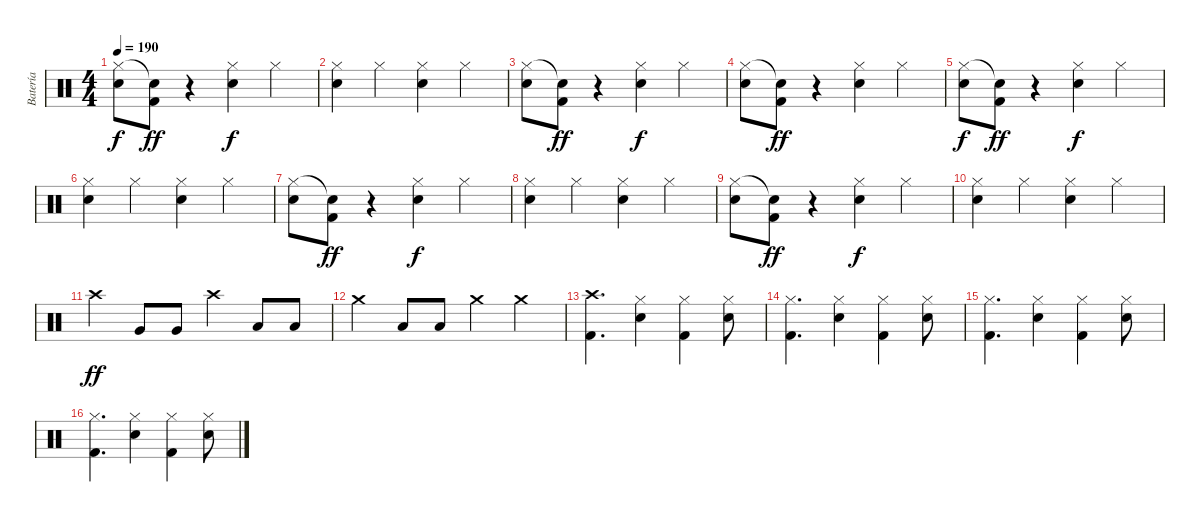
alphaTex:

\track ("Batería" "Batería") {instrument percussion}
\staff {score}
\articulation defaults
\ts (4 4)
\tempo 190
\clef neutral
\ks c
("Electric Snare (hit)" "Hi-Hat (closed)").8{dy f} ("Kick (hit) 2" "Snare (hit)"{t}).8{dy ff} r.4 ("Electric Snare (hit)" "Hi-Hat (closed)").4{dy f} "Hi-Hat (closed)".4 |
("Electric Snare (hit)" "Hi-Hat (closed)").4 "Hi-Hat (closed)".4 ("Electric Snare (hit)" "Hi-Hat (closed)").4 "Hi-Hat (closed)".4 |
("Electric Snare (hit)" "Hi-Hat (closed)").8 ("Kick (hit) 2" "Snare (hit)"{t}).8{dy ff} r.4 ("Electric Snare (hit)" "Hi-Hat (closed)").4{dy f} "Hi-Hat (closed)".4 |
("Electric Snare (hit)" "Hi-Hat (closed)").8 ("Kick (hit) 2" "Snare (hit)"{t}).8{dy ff} r.4 ("Electric Snare (hit)" "Hi-Hat (closed)").4 "Hi-Hat (closed)".4 |
("Electric Snare (hit)" "Hi-Hat (closed)").8{dy f} ("Kick (hit) 2" "Snare (hit)"{t}).8{dy ff} r.4 ("Electric Snare (hit)" "Hi-Hat (closed)").4{dy f} "Hi-Hat (closed)".4 |
("Electric Snare (hit)" "Hi-Hat (closed)").4 "Hi-Hat (closed)".4 ("Electric Snare (hit)" "Hi-Hat (closed)").4 "Hi-Hat (closed)".4 |
("Electric Snare (hit)" "Hi-Hat (closed)").8 ("Kick (hit) 2" "Snare (hit)"{t}).8{dy ff} r.4 ("Electric Snare (hit)" "Hi-Hat (closed)").4{dy f} "Hi-Hat (closed)".4 |
("Electric Snare (hit)" "Hi-Hat (closed)").4 "Hi-Hat (closed)".4 ("Electric Snare (hit)" "Hi-Hat (closed)").4 "Hi-Hat (closed)".4 |
("Electric Snare (hit)" "Hi-Hat (closed)").8 ("Kick (hit) 2" "Snare (hit)"{t}).8{dy ff} r.4 ("Electric Snare (hit)" "Hi-Hat (closed)").4{dy f} "Hi-Hat (closed)".4 |
("Electric Snare (hit)" "Hi-Hat (closed)").4 "Hi-Hat (closed)".4 ("Electric Snare (hit)" "Hi-Hat (closed)").4 "Hi-Hat (closed)".4 |
"Crash high (hit)".4{dy ff} "Very Low Tom (hit)".8 "Very Low Tom (hit)".8 "Crash high (hit)".4 "Low Floor Tom (hit)".8 "Low Floor Tom (hit)".8 |
"Crash medium (hit)".4 "Low Floor Tom (hit)".8 "Low Floor Tom (hit)".8 "Crash medium (hit)".4 "Crash medium (hit)".4 |
("Crash high (hit)" "Kick (hit) 2").4{d} ("Electric Snare (hit)" "Hi-Hat (closed)").4 ("Kick (hit) 2" "Hi-Hat (closed)").4 ("Electric Snare (hit)" "Hi-Hat (closed)").8 |
("Kick (hit) 2" "Hi-Hat (closed)").4{d} ("Electric Snare (hit)" "Hi-Hat (closed)").4 ("Kick (hit) 2" "Hi-Hat (closed)").4 ("Electric Snare (hit)" "Hi-Hat (closed)").8 |
("Kick (hit) 2" "Hi-Hat (closed)").4{d} ("Electric Snare (hit)" "Hi-Hat (closed)").4 ("Kick (hit) 2" "Hi-Hat (closed)").4 ("Electric Snare (hit)" "Hi-Hat (closed)").8 |
("Kick (hit) 2" "Hi-Hat (closed)").4{d} ("Electric Snare (hit)" "Hi-Hat (closed)").4 ("Kick (hit) 2" "Hi-Hat (closed)").4 ("Electric Snare (hit)" "Hi-Hat (closed)").8
